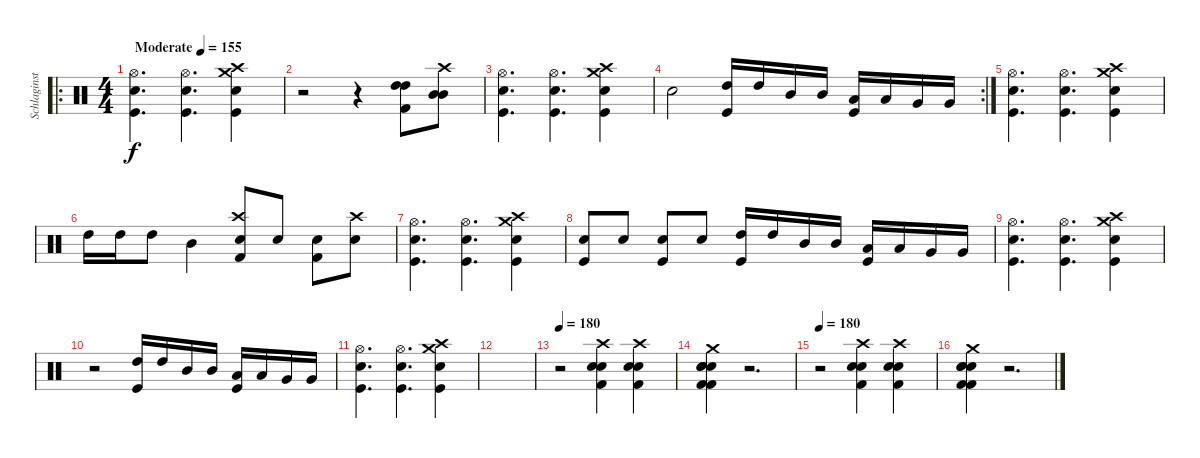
\track ("Schlaginstrumente - Auswahl" "Schlaginst") {instrument percussion}
\staff {score}
\articulation defaults
\ro
\ts (4 4)
\tempo (155 "Moderate")
\clef neutral
\ks c
("Kick (hit)" "Electric Snare (hit)" "Hi-Hat (open)").4{d dy f} ("Kick (hit)" "Electric Snare (hit)" "Hi-Hat (open)").4{d} ("Kick (hit)" "Electric Snare (hit)" "Crash medium (hit)" "Crash high (hit)").4 |
r.2 r.4 ("Kick (hit) 2" "High Tom (hit)" "High Tom (hit)").8 ("Mid Tom (hit)" "Mid Tom (hit)" "Crash high (hit)").8 |
("Kick (hit)" "Electric Snare (hit)" "Hi-Hat (open)").4{d} ("Kick (hit)" "Electric Snare (hit)" "Hi-Hat (open)").4{d} ("Kick (hit)" "Electric Snare (hit)" "Crash medium (hit)" "Crash high (hit)").4 |
\rc 2 "Electric Snare (hit)".2
("Kick (hit)" "High Tom (hit)").16 "High Tom (hit)".16 "Mid Tom (hit)".16 "Mid Tom (hit)".16 ("Kick (hit)" "Low Tom (hit)").16 "Low Tom (hit)".16 "Very Low Tom (hit)".16 "Very Low Tom (hit)".16 |
("Kick (hit)" "Electric Snare (hit)" "Hi-Hat (open)").4{d} ("Kick (hit)" "Electric Snare (hit)" "Hi-Hat (open)").4{d} ("Kick (hit)" "Electric Snare (hit)" "Crash medium (hit)" "Crash high (hit)").4 |
"High Tom (hit)".16 "High Tom (hit)".16 "High Tom (hit)".8 "Mid Tom (hit)".4 ("Kick (hit) 2" "Electric Snare (hit)" "Crash high (hit)").8 "Electric Snare (hit)".8 ("Kick (hit) 2" "Electric Snare (hit)").8 ("Electric Snare (hit)" "Crash high (hit)").8 |
("Kick (hit)" "Electric Snare (hit)" "Hi-Hat (open)").4{d} ("Kick (hit)" "Electric Snare (hit)" "Hi-Hat (open)").4{d} ("Kick (hit)" "Electric Snare (hit)" "Crash medium (hit)" "Crash high (hit)").4 |
("Kick (hit)" "Electric Snare (hit)").8 "Electric Snare (hit)".8 ("Kick (hit)" "Electric Snare (hit)").8 "Electric Snare (hit)".8 ("Kick (hit)" "High Tom (hit)").16 "High Tom (hit)".16 "Mid Tom (hit)".16 "Mid Tom (hit)".16 ("Kick (hit)" "Low Tom (hit)").16 "Low Tom (hit)".16 "Very Low Tom (hit)".16 "Very Low Tom (hit)".16 |
("Kick (hit)" "Electric Snare (hit)" "Hi-Hat (open)").4{d} ("Kick (hit)" "Electric Snare (hit)" "Hi-Hat (open)").4{d} ("Kick (hit)" "Electric Snare (hit)" "Crash medium (hit)" "Crash high (hit)").4 |
r.2 ("Kick (hit)" "High Tom (hit)").16 "High Tom (hit)".16 "Mid Tom (hit)".16 "Mid Tom (hit)".16 ("Kick (hit)" "Low Tom (hit)").16 "Low Tom (hit)".16 "Very Low Tom (hit)".16 "Very Low Tom (hit)".16 |
("Kick (hit)" "Electric Snare (hit)" "Hi-Hat (open)").4{d} ("Kick (hit)" "Electric Snare (hit)" "Hi-Hat (open)").4{d} ("Kick (hit)" "Electric Snare (hit)" "Crash medium (hit)" "Crash high (hit)").4 |
|
\tempo 180
r.2 ("Kick (hit) 2" "Snare (hit) 2" "Electric Snare (hit)" "Crash high (hit)").4 ("Kick (hit) 2" "Snare (hit) 2" "Electric Snare (hit)" "Crash high (hit)").4 |
("Kick (hit) 2" "Snare (hit) 2" "Snare (hit) 2" "Electric Snare (hit)" "Crash medium (hit)" "Kick (hit) 2").4 r.2{d} |
\tempo 180
r.2 ("Kick (hit) 2" "Snare (hit) 2" "Electric Snare (hit)" "Crash high (hit)").4 ("Kick (hit) 2" "Snare (hit) 2" "Electric Snare (hit)" "Crash high (hit)").4 |
("Kick (hit) 2" "Snare (hit) 2" "Snare (hit) 2" "Electric Snare (hit)" "Crash medium (hit)" "Kick (hit) 2").4 r.2{d}
